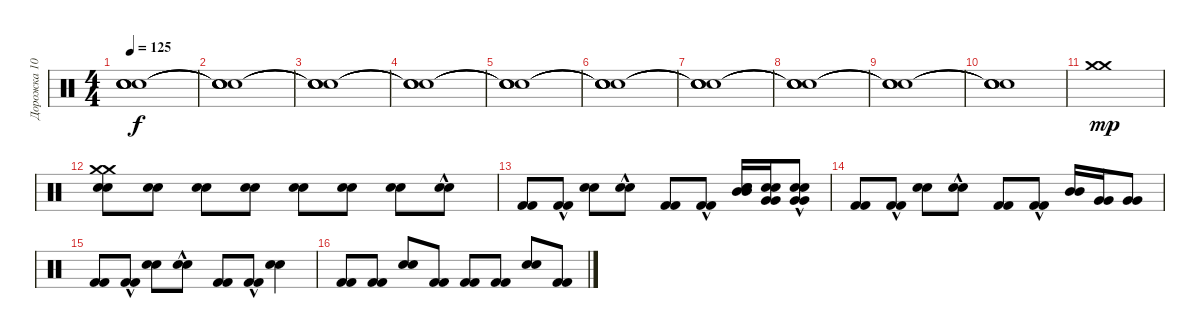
\track ("Дорожка 10" "Дорожка 10") {instrument percussion}
\staff {score}
\articulation defaults
\ts (4 4)
\tempo 125
\clef neutral
\ks c
("Snare (hit)"{t} "Snare (hit)"{t} "Snare (hit)"{t} "Snare (hit)"{t}).1{dy f} |
("Snare (hit)"{t} "Snare (hit)"{t} "Snare (hit)"{t} "Snare (hit)"{t}).1 |
("Snare (hit)"{t} "Snare (hit)"{t} "Snare (hit)"{t} "Snare (hit)"{t}).1 |
("Snare (hit)"{t} "Snare (hit)"{t} "Snare (hit)"{t} "Snare (hit)"{t}).1 |
("Snare (hit)"{t} "Snare (hit)"{t} "Snare (hit)"{t} "Snare (hit)"{t}).1 |
("Snare (hit)"{t} "Snare (hit)"{t} "Snare (hit)"{t} "Snare (hit)"{t}).1 |
("Snare (hit)"{t} "Snare (hit)"{t} "Snare (hit)"{t} "Snare (hit)"{t}).1 |
("Snare (hit)"{t} "Snare (hit)"{t} "Snare (hit)"{t} "Snare (hit)"{t}).1 |
("Snare (hit)"{t} "Snare (hit)"{t} "Snare (hit)"{t} "Snare (hit)"{t}).1 |
("Snare (hit)"{t} "Snare (hit)"{t} "Snare (hit)"{t} "Snare (hit)"{t}).1 |
("Crash medium (hit)" "Crash medium (hit)").1{dy mp} |
("Snare (hit) 2" "Crash medium (hit)" "Snare (hit) 2" "Crash medium (hit)").8 ("Snare (hit) 2" "Snare (hit) 2").8 ("Snare (hit) 2" "Snare (hit) 2").8 ("Snare (hit) 2" "Snare (hit) 2").8 ("Snare (hit) 2" "Snare (hit) 2").8 ("Snare (hit) 2" "Snare (hit) 2").8 ("Snare (hit) 2" "Snare (hit) 2").8 ("Snare (hit) 2"{hac} "Snare (hit) 2"{hac}).8 |
("Kick (hit) 2" "Kick (hit) 2").8 ("Kick (hit) 2"{hac} "Kick (hit) 2"{hac}).8 ("Snare (hit) 2" "Snare (hit) 2").8 ("Snare (hit) 2"{hac} "Snare (hit) 2"{hac}).8 ("Kick (hit) 2" "Kick (hit) 2").8 ("Kick (hit) 2"{hac} "Kick (hit) 2"{hac}).8 ("Snare (hit) 2" "Mid Tom (hit)" "Snare (hit) 2" "Mid Tom (hit)").16 ("Snare (hit) 2" "Very Low Tom (hit)" "Snare (hit) 2" "Very Low Tom (hit)").16 ("Snare (hit) 2"{hac} "Very Low Tom (hit)"{hac} "Snare (hit) 2"{hac} "Very Low Tom (hit)"{hac}).8 |
("Kick (hit) 2" "Kick (hit) 2").8 ("Kick (hit) 2"{hac} "Kick (hit) 2"{hac}).8 ("Snare (hit) 2" "Snare (hit) 2").8 ("Snare (hit) 2"{hac} "Snare (hit) 2"{hac}).8 ("Kick (hit) 2" "Kick (hit) 2").8 ("Kick (hit) 2"{hac} "Kick (hit) 2"{hac}).8 ("Mid Tom (hit)" "Mid Tom (hit)").16 ("Very Low Tom (hit)" "Very Low Tom (hit)").16 ("Very Low Tom (hit)" "Very Low Tom (hit)").8 |
("Kick (hit) 2" "Kick (hit) 2").8 ("Kick (hit) 2"{hac} "Kick (hit) 2"{hac}).8 ("Snare (hit) 2" "Snare (hit) 2").8 ("Snare (hit) 2"{hac} "Snare (hit) 2"{hac}).8 ("Kick (hit) 2" "Kick (hit) 2").8 ("Kick (hit) 2"{hac} "Kick (hit) 2"{hac}).8 ("Snare (hit) 2" "Snare (hit) 2").4 |
("Kick (hit) 2" "Kick (hit) 2").8 ("Kick (hit) 2" "Kick (hit) 2").8 ("Snare (hit) 2" "Snare (hit) 2").8 ("Kick (hit) 2" "Kick (hit) 2").8 ("Kick (hit) 2" "Kick (hit) 2").8 ("Kick (hit) 2" "Kick (hit) 2").8 ("Snare (hit) 2" "Snare (hit) 2").8 ("Kick (hit) 2" "Kick (hit) 2").8
